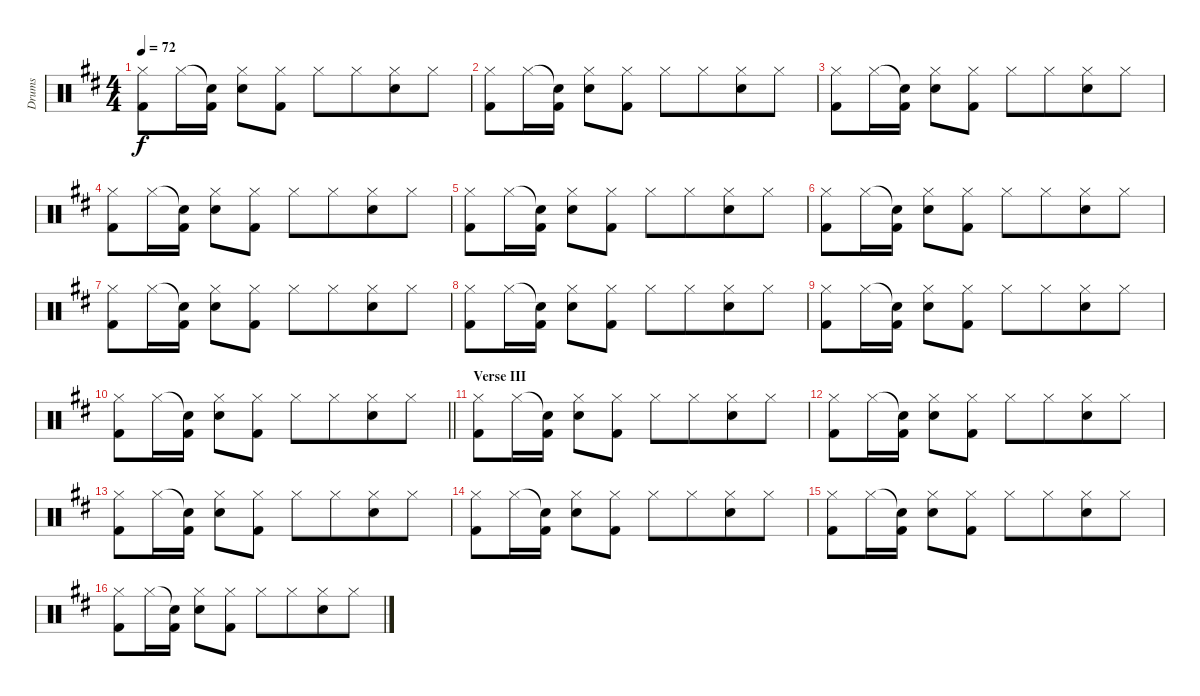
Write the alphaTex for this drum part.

\track ("Drums" "Drums") {instrument percussion}
\staff {score}
\articulation defaults
\ts (4 4)
\tempo 72
\clef neutral
\ks d
("Hi-Hat (closed)" "Kick (hit) 2").8{dy f} "Hi-Hat (closed)".16 ("Snare (hit)"{t} "Kick (hit) 2").16 ("Hi-Hat (closed)" "Snare (hit) 2").8 ("Hi-Hat (closed)" "Kick (hit) 2").8 "Hi-Hat (closed)".8 "Hi-Hat (closed)".8{beam merge} ("Hi-Hat (closed)" "Snare (hit) 2").8 "Hi-Hat (closed)".8 |
("Hi-Hat (closed)" "Kick (hit) 2").8 "Hi-Hat (closed)".16 ("Snare (hit)"{t} "Kick (hit) 2").16 ("Hi-Hat (closed)" "Snare (hit) 2").8 ("Hi-Hat (closed)" "Kick (hit) 2").8 "Hi-Hat (closed)".8 "Hi-Hat (closed)".8{beam merge} ("Hi-Hat (closed)" "Snare (hit) 2").8 "Hi-Hat (closed)".8 |
("Hi-Hat (closed)" "Kick (hit) 2").8 "Hi-Hat (closed)".16 ("Snare (hit)"{t} "Kick (hit) 2").16 ("Hi-Hat (closed)" "Snare (hit) 2").8 ("Hi-Hat (closed)" "Kick (hit) 2").8 "Hi-Hat (closed)".8 "Hi-Hat (closed)".8{beam merge} ("Hi-Hat (closed)" "Snare (hit) 2").8 "Hi-Hat (closed)".8 |
("Hi-Hat (closed)" "Kick (hit) 2").8 "Hi-Hat (closed)".16 ("Snare (hit)"{t} "Kick (hit) 2").16 ("Hi-Hat (closed)" "Snare (hit) 2").8 ("Hi-Hat (closed)" "Kick (hit) 2").8 "Hi-Hat (closed)".8 "Hi-Hat (closed)".8{beam merge} ("Hi-Hat (closed)" "Snare (hit) 2").8 "Hi-Hat (closed)".8 |
("Hi-Hat (closed)" "Kick (hit) 2").8 "Hi-Hat (closed)".16 ("Snare (hit)"{t} "Kick (hit) 2").16 ("Hi-Hat (closed)" "Snare (hit) 2").8 ("Hi-Hat (closed)" "Kick (hit) 2").8 "Hi-Hat (closed)".8 "Hi-Hat (closed)".8{beam merge} ("Hi-Hat (closed)" "Snare (hit) 2").8 "Hi-Hat (closed)".8 |
("Hi-Hat (closed)" "Kick (hit) 2").8 "Hi-Hat (closed)".16 ("Snare (hit)"{t} "Kick (hit) 2").16 ("Hi-Hat (closed)" "Snare (hit) 2").8 ("Hi-Hat (closed)" "Kick (hit) 2").8 "Hi-Hat (closed)".8 "Hi-Hat (closed)".8{beam merge} ("Hi-Hat (closed)" "Snare (hit) 2").8 "Hi-Hat (closed)".8 |
("Hi-Hat (closed)" "Kick (hit) 2").8 "Hi-Hat (closed)".16 ("Snare (hit)"{t} "Kick (hit) 2").16 ("Hi-Hat (closed)" "Snare (hit) 2").8 ("Hi-Hat (closed)" "Kick (hit) 2").8 "Hi-Hat (closed)".8 "Hi-Hat (closed)".8{beam merge} ("Hi-Hat (closed)" "Snare (hit) 2").8 "Hi-Hat (closed)".8 |
("Hi-Hat (closed)" "Kick (hit) 2").8 "Hi-Hat (closed)".16 ("Snare (hit)"{t} "Kick (hit) 2").16 ("Hi-Hat (closed)" "Snare (hit) 2").8 ("Hi-Hat (closed)" "Kick (hit) 2").8 "Hi-Hat (closed)".8 "Hi-Hat (closed)".8{beam merge} ("Hi-Hat (closed)" "Snare (hit) 2").8 "Hi-Hat (closed)".8 |
("Hi-Hat (closed)" "Kick (hit) 2").8 "Hi-Hat (closed)".16 ("Snare (hit)"{t} "Kick (hit) 2").16 ("Hi-Hat (closed)" "Snare (hit) 2").8 ("Hi-Hat (closed)" "Kick (hit) 2").8 "Hi-Hat (closed)".8 "Hi-Hat (closed)".8{beam merge} ("Hi-Hat (closed)" "Snare (hit) 2").8 "Hi-Hat (closed)".8 |
\barLineRight lightlight
("Hi-Hat (closed)" "Kick (hit) 2").8 "Hi-Hat (closed)".16 ("Snare (hit)"{t} "Kick (hit) 2").16 ("Hi-Hat (closed)" "Snare (hit) 2").8 ("Hi-Hat (closed)" "Kick (hit) 2").8 "Hi-Hat (closed)".8 "Hi-Hat (closed)".8{beam merge} ("Hi-Hat (closed)" "Snare (hit) 2").8 "Hi-Hat (closed)".8 |
\section ("" "Verse III")
("Hi-Hat (closed)" "Kick (hit) 2").8 "Hi-Hat (closed)".16 ("Snare (hit)"{t} "Kick (hit) 2").16 ("Hi-Hat (closed)" "Snare (hit) 2").8 ("Hi-Hat (closed)" "Kick (hit) 2").8 "Hi-Hat (closed)".8 "Hi-Hat (closed)".8{beam merge} ("Hi-Hat (closed)" "Snare (hit) 2").8 "Hi-Hat (closed)".8 |
("Hi-Hat (closed)" "Kick (hit) 2").8 "Hi-Hat (closed)".16 ("Snare (hit)"{t} "Kick (hit) 2").16 ("Hi-Hat (closed)" "Snare (hit) 2").8 ("Hi-Hat (closed)" "Kick (hit) 2").8 "Hi-Hat (closed)".8 "Hi-Hat (closed)".8{beam merge} ("Hi-Hat (closed)" "Snare (hit) 2").8 "Hi-Hat (closed)".8 |
("Hi-Hat (closed)" "Kick (hit) 2").8 "Hi-Hat (closed)".16 ("Snare (hit)"{t} "Kick (hit) 2").16 ("Hi-Hat (closed)" "Snare (hit) 2").8 ("Hi-Hat (closed)" "Kick (hit) 2").8 "Hi-Hat (closed)".8 "Hi-Hat (closed)".8{beam merge} ("Hi-Hat (closed)" "Snare (hit) 2").8 "Hi-Hat (closed)".8 |
("Hi-Hat (closed)" "Kick (hit) 2").8 "Hi-Hat (closed)".16 ("Snare (hit)"{t} "Kick (hit) 2").16 ("Hi-Hat (closed)" "Snare (hit) 2").8 ("Hi-Hat (closed)" "Kick (hit) 2").8 "Hi-Hat (closed)".8 "Hi-Hat (closed)".8{beam merge} ("Hi-Hat (closed)" "Snare (hit) 2").8 "Hi-Hat (closed)".8 |
("Hi-Hat (closed)" "Kick (hit) 2").8 "Hi-Hat (closed)".16 ("Snare (hit)"{t} "Kick (hit) 2").16 ("Hi-Hat (closed)" "Snare (hit) 2").8 ("Hi-Hat (closed)" "Kick (hit) 2").8 "Hi-Hat (closed)".8 "Hi-Hat (closed)".8{beam merge} ("Hi-Hat (closed)" "Snare (hit) 2").8 "Hi-Hat (closed)".8 |
("Hi-Hat (closed)" "Kick (hit) 2").8 "Hi-Hat (closed)".16 ("Snare (hit)"{t} "Kick (hit) 2").16 ("Hi-Hat (closed)" "Snare (hit) 2").8 ("Hi-Hat (closed)" "Kick (hit) 2").8 "Hi-Hat (closed)".8 "Hi-Hat (closed)".8{beam merge} ("Hi-Hat (closed)" "Snare (hit) 2").8 "Hi-Hat (closed)".8
